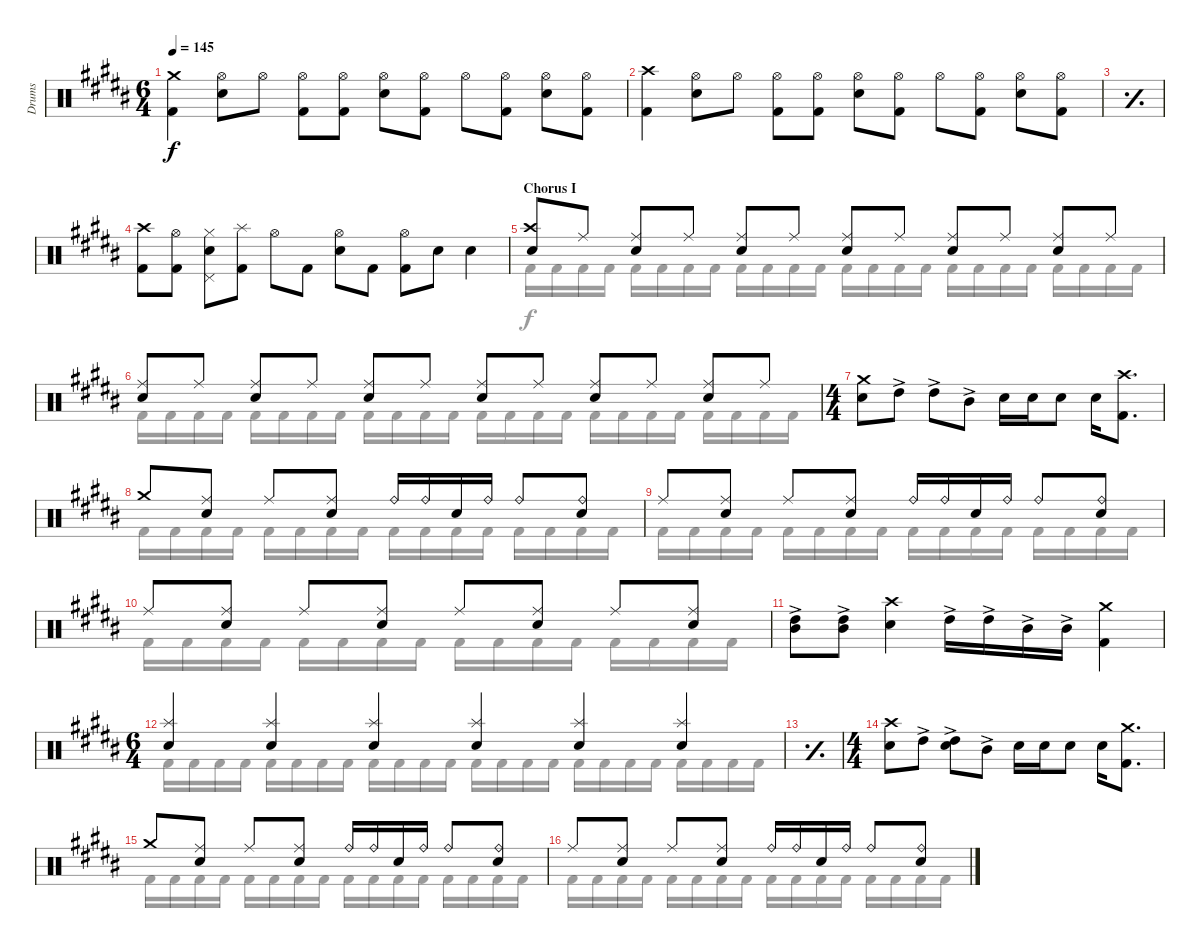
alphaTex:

\defaultSystemsLayout 4
\bracketExtendMode groupsimilarinstruments
\otherSystemsTrackNameOrientation horizontal
\track ("Drumkit" "Drums") {multiBarRest instrument percussion}
\staff {score}
\articulation defaults
\voice
\ts (6 4)
\tempo 145
\clef neutral
\ks b
("Kick (hit) 2"{acc forcenatural} "Crash medium (hit)"{acc forcenatural}).4{dy f} ("Hi-Hat (open)"{acc forcenatural} "Snare (hit) 2"{acc forcenatural}).8 "Hi-Hat (open)"{acc forcenatural}.8 ("Hi-Hat (open)"{acc forcenatural} "Kick (hit) 2"{acc forcenatural}).8 ("Kick (hit) 2"{acc forcenatural} "Hi-Hat (open)"{acc forcenatural}).8 ("Hi-Hat (open)"{acc forcenatural} "Snare (hit) 2"{acc forcenatural}).8 ("Kick (hit) 2"{acc forcenatural} "Hi-Hat (open)"{acc forcenatural}).8 "Hi-Hat (open)"{acc forcenatural}.8 ("Kick (hit) 2"{acc forcenatural} "Hi-Hat (open)"{acc forcenatural}).8 ("Hi-Hat (open)"{acc forcenatural} "Snare (hit) 2"{acc forcenatural}).8 ("Kick (hit) 2"{acc forcenatural} "Hi-Hat (open)"{acc forcenatural}).8 |
("Kick (hit) 2"{acc forcenatural} "Crash high (hit)"{acc forcenatural}).4 ("Hi-Hat (open)"{acc forcenatural} "Snare (hit) 2"{acc forcenatural}).8 "Hi-Hat (open)"{acc forcenatural}.8 ("Hi-Hat (open)"{acc forcenatural} "Kick (hit) 2"{acc forcenatural}).8 ("Kick (hit) 2"{acc forcenatural} "Hi-Hat (open)"{acc forcenatural}).8 ("Hi-Hat (open)"{acc forcenatural} "Snare (hit) 2"{acc forcenatural}).8 ("Kick (hit) 2"{acc forcenatural} "Hi-Hat (open)"{acc forcenatural}).8 "Hi-Hat (open)"{acc forcenatural}.8 ("Kick (hit) 2"{acc forcenatural} "Hi-Hat (open)"{acc forcenatural}).8 ("Hi-Hat (open)"{acc forcenatural} "Snare (hit) 2"{acc forcenatural}).8 ("Kick (hit) 2"{acc forcenatural} "Hi-Hat (open)"{acc forcenatural}).8 |
\simile simple
|
\simile none
("Kick (hit) 2"{acc forcenatural} "Crash high (hit)"{acc forcenatural}).8 ("Kick (hit) 2"{acc forcenatural} "Hi-Hat (open)"{acc forcenatural}).8 ("Hi-Hat (closed)"{acc forcenatural} "Snare (hit) 2"{acc forcenatural} "Pedal Hi-Hat (hit)"{acc forcenatural}).8 ("Kick (hit) 2"{acc forcenatural} "Splash (hit)"{acc forcenatural}).8 "Hi-Hat (open)"{acc forcenatural}.8 "Kick (hit) 2"{acc forcenatural}.8 ("Hi-Hat (open)"{acc forcenatural} "Snare (hit) 2"{acc forcenatural}).8 "Kick (hit) 2"{acc forcenatural}.8 ("Kick (hit) 2"{acc forcenatural} "Hi-Hat (open)"{acc forcenatural}).8 "Snare (hit) 2"{acc forcenatural}.8 "Snare (hit) 2"{acc forcenatural}.4 |
\beaming (8 2 2 2 2 2 2)
\section ("" "Chorus I")
("Snare (hit) 2"{acc forcenatural} "Crash high (hit)"{acc forcenatural}).8 "Ride (middle)"{acc forcenatural}.8 ("Snare (hit) 2"{acc forcenatural} "Ride (middle)"{acc forcenatural}).8 "Ride (middle)"{acc forcenatural}.8 ("Snare (hit) 2"{acc forcenatural} "Ride (middle)"{acc forcenatural}).8 "Ride (middle)"{acc forcenatural}.8 ("Snare (hit) 2"{acc forcenatural} "Ride (middle)"{acc forcenatural}).8 "Ride (middle)"{acc forcenatural}.8 ("Snare (hit) 2"{acc forcenatural} "Ride (middle)"{acc forcenatural}).8 "Ride (middle)"{acc forcenatural}.8 ("Snare (hit) 2"{acc forcenatural} "Ride (middle)"{acc forcenatural}).8 "Ride (middle)"{acc forcenatural}.8 |
("Snare (hit) 2"{acc forcenatural} "Ride (middle)"{acc forcenatural}).8 "Ride (middle)"{acc forcenatural}.8 ("Snare (hit) 2"{acc forcenatural} "Ride (middle)"{acc forcenatural}).8 "Ride (middle)"{acc forcenatural}.8 ("Snare (hit) 2"{acc forcenatural} "Ride (middle)"{acc forcenatural}).8 "Ride (middle)"{acc forcenatural}.8 ("Snare (hit) 2"{acc forcenatural} "Ride (middle)"{acc forcenatural}).8 "Ride (middle)"{acc forcenatural}.8 ("Snare (hit) 2"{acc forcenatural} "Ride (middle)"{acc forcenatural}).8 "Ride (middle)"{acc forcenatural}.8 ("Snare (hit) 2"{acc forcenatural} "Ride (middle)"{acc forcenatural}).8 "Ride (middle)"{acc forcenatural}.8 |
\ts (4 4)
("Snare (hit) 2"{acc forcenatural} "Crash medium (hit)"{acc forcenatural}).8 "High Tom (hit)"{ac acc forcenatural}.8 "High Tom (hit)"{ac acc forcenatural}.8 "Mid Tom (hit)"{ac acc forcenatural}.8 "Snare (hit) 2"{acc forcenatural}.16 "Snare (hit) 2"{acc forcenatural}.16 "Snare (hit) 2"{acc forcenatural}.8 "Snare (hit) 2"{acc forcenatural}.16 ("Kick (hit) 2"{acc forcenatural} "Crash high (hit)"{acc forcenatural}).8{d} |
"Crash medium (hit)"{acc forcenatural}.8 ("Ride (middle)"{acc forcenatural} "Snare (hit) 2"{acc forcenatural}).8 "Ride (middle)"{acc forcenatural}.8 ("Ride (middle)"{acc forcenatural} "Snare (hit) 2"{acc forcenatural}).8 "Ride (bell)"{acc forcenatural}.16 "Ride (bell)"{acc forcenatural}.16 "Snare (hit) 2"{acc forcenatural}.16 "Ride (bell)"{acc forcenatural}.16 "Ride (bell)"{acc forcenatural}.8 ("Snare (hit) 2"{acc forcenatural} "Ride (bell)"{acc forcenatural}).8 |
"Ride (middle)"{acc forcenatural}.8 ("Ride (middle)"{acc forcenatural} "Snare (hit) 2"{acc forcenatural}).8 "Ride (middle)"{acc forcenatural}.8 ("Ride (middle)"{acc forcenatural} "Snare (hit) 2"{acc forcenatural}).8 "Ride (bell)"{acc forcenatural}.16 "Ride (bell)"{acc forcenatural}.16 "Snare (hit) 2"{acc forcenatural}.16 "Ride (bell)"{acc forcenatural}.16 "Ride (bell)"{acc forcenatural}.8 ("Snare (hit) 2"{acc forcenatural} "Ride (bell)"{acc forcenatural}).8 |
"Ride (middle)"{acc forcenatural}.8 ("Snare (hit) 2"{acc forcenatural} "Ride (middle)"{acc forcenatural}).8 "Ride (middle)"{acc forcenatural}.8 ("Snare (hit) 2"{acc forcenatural} "Ride (middle)"{acc forcenatural}).8 "Ride (middle)"{acc forcenatural}.8 ("Snare (hit) 2"{acc forcenatural} "Ride (middle)"{acc forcenatural}).8 "Ride (middle)"{acc forcenatural}.8 ("Snare (hit) 2"{acc forcenatural} "Ride (middle)"{acc forcenatural}).8 |
("Mid Tom (hit)"{ac acc forcenatural} "High Tom (hit)"{ac acc forcenatural}).8 ("Mid Tom (hit)"{ac acc forcenatural} "High Tom (hit)"{ac acc forcenatural}).8 ("Snare (hit) 2"{acc forcenatural} "Crash high (hit)"{acc forcenatural}).4 "High Tom (hit)"{ac acc forcenatural}.16 "High Tom (hit)"{ac acc forcenatural}.16 "Mid Tom (hit)"{ac acc forcenatural}.16 "Mid Tom (hit)"{ac acc forcenatural}.16 ("Kick (hit) 2"{acc forcenatural} "Crash medium (hit)"{acc forcenatural}).4 |
\ts (6 4)
("Snare (hit) 2"{acc forcenatural} "Splash (hit)"{acc forcenatural}).4 ("Snare (hit) 2"{acc forcenatural} "Splash (hit)"{acc forcenatural}).4 ("Snare (hit) 2"{acc forcenatural} "Splash (hit)"{acc forcenatural}).4 ("Snare (hit) 2"{acc forcenatural} "Splash (hit)"{acc forcenatural}).4 ("Snare (hit) 2"{acc forcenatural} "Splash (hit)"{acc forcenatural}).4 ("Snare (hit) 2"{acc forcenatural} "Splash (hit)"{acc forcenatural}).4 |
\simile simple
|
\ts (4 4)
\simile none
("Snare (hit) 2"{acc forcenatural} "Crash high (hit)"{acc forcenatural}).8 "High Tom (hit)"{ac acc forcenatural}.8 ("High Tom (hit)"{ac acc forcenatural} "Snare (hit) 2"{acc forcenatural}).8 "Mid Tom (hit)"{ac acc forcenatural}.8 "Snare (hit) 2"{acc forcenatural}.16 "Snare (hit) 2"{acc forcenatural}.16 "Snare (hit) 2"{acc forcenatural}.8 "Snare (hit) 2"{acc forcenatural}.16 ("Kick (hit) 2"{acc forcenatural} "Crash medium (hit)"{acc forcenatural}).8{d} |
"Crash medium (hit)"{acc forcenatural}.8 ("Ride (middle)"{acc forcenatural} "Snare (hit) 2"{acc forcenatural}).8 "Ride (middle)"{acc forcenatural}.8 ("Ride (middle)"{acc forcenatural} "Snare (hit) 2"{acc forcenatural}).8 "Ride (bell)"{acc forcenatural}.16 "Ride (bell)"{acc forcenatural}.16 "Snare (hit) 2"{acc forcenatural}.16 "Ride (bell)"{acc forcenatural}.16 "Ride (bell)"{acc forcenatural}.8 ("Snare (hit) 2"{acc forcenatural} "Ride (bell)"{acc forcenatural}).8 |
"Ride (middle)"{acc forcenatural}.8 ("Ride (middle)"{acc forcenatural} "Snare (hit) 2"{acc forcenatural}).8 "Ride (middle)"{acc forcenatural}.8 ("Ride (middle)"{acc forcenatural} "Snare (hit) 2"{acc forcenatural}).8 "Ride (bell)"{acc forcenatural}.16 "Ride (bell)"{acc forcenatural}.16 "Snare (hit) 2"{acc forcenatural}.16 "Ride (bell)"{acc forcenatural}.16 "Ride (bell)"{acc forcenatural}.8 ("Snare (hit) 2"{acc forcenatural} "Ride (bell)"{acc forcenatural}).8
\voice
\clef neutral
\ottava regular
\simile none
\ks b
|
|
\simile simple
|
\simile none
|
"Kick (hit) 2"{acc forcenatural}.16 "Kick (hit) 2"{acc forcenatural}.16 "Kick (hit) 2"{acc forcenatural}.16 "Kick (hit) 2"{acc forcenatural}.16 "Kick (hit) 2"{acc forcenatural}.16 "Kick (hit) 2"{acc forcenatural}.16 "Kick (hit) 2"{acc forcenatural}.16 "Kick (hit) 2"{acc forcenatural}.16 "Kick (hit) 2"{acc forcenatural}.16 "Kick (hit) 2"{acc forcenatural}.16 "Kick (hit) 2"{acc forcenatural}.16 "Kick (hit) 2"{acc forcenatural}.16 "Kick (hit) 2"{acc forcenatural}.16 "Kick (hit) 2"{acc forcenatural}.16 "Kick (hit) 2"{acc forcenatural}.16 "Kick (hit) 2"{acc forcenatural}.16 "Kick (hit) 2"{acc forcenatural}.16 "Kick (hit) 2"{acc forcenatural}.16 "Kick (hit) 2"{acc forcenatural}.16 "Kick (hit) 2"{acc forcenatural}.16 "Kick (hit) 2"{acc forcenatural}.16 "Kick (hit) 2"{acc forcenatural}.16 "Kick (hit) 2"{acc forcenatural}.16 "Kick (hit) 2"{acc forcenatural}.16 |
"Kick (hit) 2"{acc forcenatural}.16 "Kick (hit) 2"{acc forcenatural}.16 "Kick (hit) 2"{acc forcenatural}.16 "Kick (hit) 2"{acc forcenatural}.16 "Kick (hit) 2"{acc forcenatural}.16 "Kick (hit) 2"{acc forcenatural}.16 "Kick (hit) 2"{acc forcenatural}.16 "Kick (hit) 2"{acc forcenatural}.16 "Kick (hit) 2"{acc forcenatural}.16 "Kick (hit) 2"{acc forcenatural}.16 "Kick (hit) 2"{acc forcenatural}.16 "Kick (hit) 2"{acc forcenatural}.16 "Kick (hit) 2"{acc forcenatural}.16 "Kick (hit) 2"{acc forcenatural}.16 "Kick (hit) 2"{acc forcenatural}.16 "Kick (hit) 2"{acc forcenatural}.16 "Kick (hit) 2"{acc forcenatural}.16 "Kick (hit) 2"{acc forcenatural}.16 "Kick (hit) 2"{acc forcenatural}.16 "Kick (hit) 2"{acc forcenatural}.16 "Kick (hit) 2"{acc forcenatural}.16 "Kick (hit) 2"{acc forcenatural}.16 "Kick (hit) 2"{acc forcenatural}.16 "Kick (hit) 2"{acc forcenatural}.16 |
|
"Kick (hit) 2"{acc forcenatural}.16 "Kick (hit) 2"{acc forcenatural}.16 "Kick (hit) 2"{acc forcenatural}.16 "Kick (hit) 2"{acc forcenatural}.16 "Kick (hit) 2"{acc forcenatural}.16 "Kick (hit) 2"{acc forcenatural}.16 "Kick (hit) 2"{acc forcenatural}.16 "Kick (hit) 2"{acc forcenatural}.16 "Kick (hit) 2"{acc forcenatural}.16 "Kick (hit) 2"{acc forcenatural}.16 "Kick (hit) 2"{acc forcenatural}.16 "Kick (hit) 2"{acc forcenatural}.16 "Kick (hit) 2"{acc forcenatural}.16 "Kick (hit) 2"{acc forcenatural}.16 "Kick (hit) 2"{acc forcenatural}.16 "Kick (hit) 2"{acc forcenatural}.16 |
"Kick (hit) 2"{acc forcenatural}.16 "Kick (hit) 2"{acc forcenatural}.16 "Kick (hit) 2"{acc forcenatural}.16 "Kick (hit) 2"{acc forcenatural}.16 "Kick (hit) 2"{acc forcenatural}.16 "Kick (hit) 2"{acc forcenatural}.16 "Kick (hit) 2"{acc forcenatural}.16 "Kick (hit) 2"{acc forcenatural}.16 "Kick (hit) 2"{acc forcenatural}.16 "Kick (hit) 2"{acc forcenatural}.16 "Kick (hit) 2"{acc forcenatural}.16 "Kick (hit) 2"{acc forcenatural}.16 "Kick (hit) 2"{acc forcenatural}.16 "Kick (hit) 2"{acc forcenatural}.16 "Kick (hit) 2"{acc forcenatural}.16 "Kick (hit) 2"{acc forcenatural}.16 |
"Kick (hit) 2"{acc forcenatural}.16 "Kick (hit) 2"{acc forcenatural}.16 "Kick (hit) 2"{acc forcenatural}.16 "Kick (hit) 2"{acc forcenatural}.16 "Kick (hit) 2"{acc forcenatural}.16 "Kick (hit) 2"{acc forcenatural}.16 "Kick (hit) 2"{acc forcenatural}.16 "Kick (hit) 2"{acc forcenatural}.16 "Kick (hit) 2"{acc forcenatural}.16 "Kick (hit) 2"{acc forcenatural}.16 "Kick (hit) 2"{acc forcenatural}.16 "Kick (hit) 2"{acc forcenatural}.16 "Kick (hit) 2"{acc forcenatural}.16 "Kick (hit) 2"{acc forcenatural}.16 "Kick (hit) 2"{acc forcenatural}.16 "Kick (hit) 2"{acc forcenatural}.16 |
|
"Kick (hit) 2"{acc forcenatural}.16 "Kick (hit) 2"{acc forcenatural}.16 "Kick (hit) 2"{acc forcenatural}.16 "Kick (hit) 2"{acc forcenatural}.16 "Kick (hit) 2"{acc forcenatural}.16 "Kick (hit) 2"{acc forcenatural}.16 "Kick (hit) 2"{acc forcenatural}.16 "Kick (hit) 2"{acc forcenatural}.16 "Kick (hit) 2"{acc forcenatural}.16 "Kick (hit) 2"{acc forcenatural}.16 "Kick (hit) 2"{acc forcenatural}.16 "Kick (hit) 2"{acc forcenatural}.16 "Kick (hit) 2"{acc forcenatural}.16 "Kick (hit) 2"{acc forcenatural}.16 "Kick (hit) 2"{acc forcenatural}.16 "Kick (hit) 2"{acc forcenatural}.16 "Kick (hit) 2"{acc forcenatural}.16 "Kick (hit) 2"{acc forcenatural}.16 "Kick (hit) 2"{acc forcenatural}.16 "Kick (hit) 2"{acc forcenatural}.16 "Kick (hit) 2"{acc forcenatural}.16 "Kick (hit) 2"{acc forcenatural}.16 "Kick (hit) 2"{acc forcenatural}.16 "Kick (hit) 2"{acc forcenatural}.16 |
\simile simple
|
\simile none
|
"Kick (hit) 2"{acc forcenatural}.16 "Kick (hit) 2"{acc forcenatural}.16 "Kick (hit) 2"{acc forcenatural}.16 "Kick (hit) 2"{acc forcenatural}.16 "Kick (hit) 2"{acc forcenatural}.16 "Kick (hit) 2"{acc forcenatural}.16 "Kick (hit) 2"{acc forcenatural}.16 "Kick (hit) 2"{acc forcenatural}.16 "Kick (hit) 2"{acc forcenatural}.16 "Kick (hit) 2"{acc forcenatural}.16 "Kick (hit) 2"{acc forcenatural}.16 "Kick (hit) 2"{acc forcenatural}.16 "Kick (hit) 2"{acc forcenatural}.16 "Kick (hit) 2"{acc forcenatural}.16 "Kick (hit) 2"{acc forcenatural}.16 "Kick (hit) 2"{acc forcenatural}.16 |
"Kick (hit) 2"{acc forcenatural}.16 "Kick (hit) 2"{acc forcenatural}.16 "Kick (hit) 2"{acc forcenatural}.16 "Kick (hit) 2"{acc forcenatural}.16 "Kick (hit) 2"{acc forcenatural}.16 "Kick (hit) 2"{acc forcenatural}.16 "Kick (hit) 2"{acc forcenatural}.16 "Kick (hit) 2"{acc forcenatural}.16 "Kick (hit) 2"{acc forcenatural}.16 "Kick (hit) 2"{acc forcenatural}.16 "Kick (hit) 2"{acc forcenatural}.16 "Kick (hit) 2"{acc forcenatural}.16 "Kick (hit) 2"{acc forcenatural}.16 "Kick (hit) 2"{acc forcenatural}.16 "Kick (hit) 2"{acc forcenatural}.16 "Kick (hit) 2"{acc forcenatural}.16
